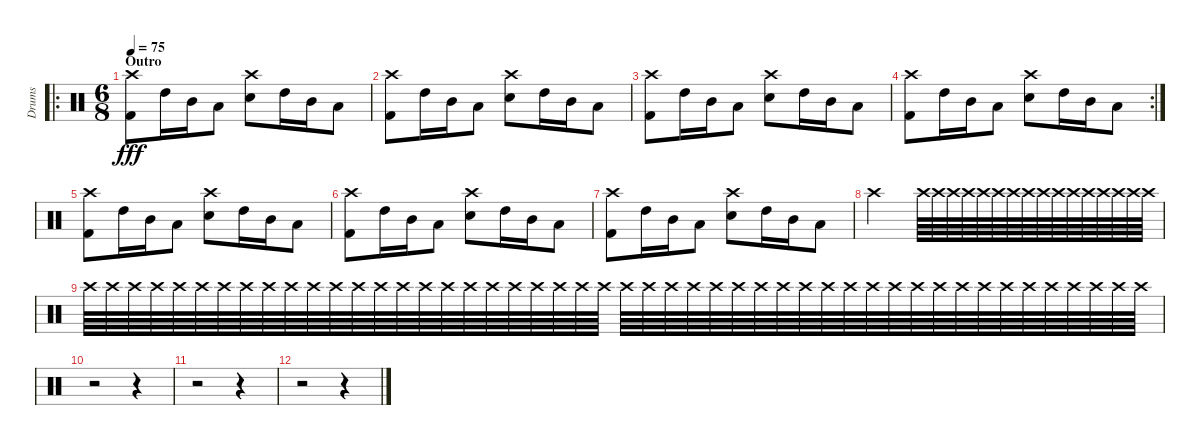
\track ("Drums" "Drums") {instrument percussion}
\staff {score}
\articulation defaults
\ro
\ts (6 8)
\section ("" "Outro")
\tempo 75
\clef neutral
\ks c
("Crash high (hit)" "Kick (hit) 2").8{dy fff} "High Tom (hit)".16 "Mid Tom (hit)".16 "Low Tom (hit)".8 ("Crash high (hit)" "Electric Snare (hit)").8 "High Tom (hit)".16 "Mid Tom (hit)".16 "Low Tom (hit)".8 |
("Crash high (hit)" "Kick (hit) 2").8 "High Tom (hit)".16 "Mid Tom (hit)".16 "Low Tom (hit)".8 ("Crash high (hit)" "Electric Snare (hit)").8 "High Tom (hit)".16 "Mid Tom (hit)".16 "Low Tom (hit)".8 |
("Crash high (hit)" "Kick (hit) 2").8 "High Tom (hit)".16 "Mid Tom (hit)".16 "Low Tom (hit)".8 ("Crash high (hit)" "Electric Snare (hit)").8 "High Tom (hit)".16 "Mid Tom (hit)".16 "Low Tom (hit)".8 |
\rc 2
("Crash high (hit)" "Kick (hit) 2").8 "High Tom (hit)".16 "Mid Tom (hit)".16 "Low Tom (hit)".8 ("Crash high (hit)" "Electric Snare (hit)").8 "High Tom (hit)".16 "Mid Tom (hit)".16 "Low Tom (hit)".8 |
("Crash high (hit)" "Kick (hit) 2").8 "High Tom (hit)".16 "Mid Tom (hit)".16 "Low Tom (hit)".8 ("Crash high (hit)" "Electric Snare (hit)").8 "High Tom (hit)".16 "Mid Tom (hit)".16 "Low Tom (hit)".8 |
("Crash high (hit)" "Kick (hit) 2").8 "High Tom (hit)".16 "Mid Tom (hit)".16 "Low Tom (hit)".8 ("Crash high (hit)" "Electric Snare (hit)").8 "High Tom (hit)".16 "Mid Tom (hit)".16 "Low Tom (hit)".8 |
("Crash high (hit)" "Kick (hit) 2").8 "High Tom (hit)".16 "Mid Tom (hit)".16 "Low Tom (hit)".8 ("Crash high (hit)" "Electric Snare (hit)").8 "High Tom (hit)".16 "Mid Tom (hit)".16 "Low Tom (hit)".8 |
"Crash high (hit)".2 "Crash high (hit)".64{volume 8} "Crash high (hit)".64{volume 16} "Crash high (hit)".64 "Crash high (hit)".64 "Crash high (hit)".64 "Crash high (hit)".64 "Crash high (hit)".64 "Crash high (hit)".64 "Crash high (hit)".64 "Crash high (hit)".64 "Crash high (hit)".64 "Crash high (hit)".64 "Crash high (hit)".64 "Crash high (hit)".64 "Crash high (hit)".64 "Crash high (hit)".64 |
"Crash high (hit)".64 "Crash high (hit)".64 "Crash high (hit)".64 "Crash high (hit)".64 "Crash high (hit)".64 "Crash high (hit)".64 "Crash high (hit)".64 "Crash high (hit)".64 "Crash high (hit)".64 "Crash high (hit)".64 "Crash high (hit)".64 "Crash high (hit)".64 "Crash high (hit)".64 "Crash high (hit)".64 "Crash high (hit)".64 "Crash high (hit)".64 "Crash high (hit)".64 "Crash high (hit)".64 "Crash high (hit)".64 "Crash high (hit)".64 "Crash high (hit)".64 "Crash high (hit)".64 "Crash high (hit)".64 "Crash high (hit)".64 "Crash high (hit)".64 "Crash high (hit)".64 "Crash high (hit)".64 "Crash high (hit)".64 "Crash high (hit)".64 "Crash high (hit)".64 "Crash high (hit)".64 "Crash high (hit)".64 "Crash high (hit)".64 "Crash high (hit)".64 "Crash high (hit)".64 "Crash high (hit)".64 "Crash high (hit)".64 "Crash high (hit)".64 "Crash high (hit)".64 "Crash high (hit)".64 "Crash high (hit)".64 "Crash high (hit)".64 "Crash high (hit)".64 "Crash high (hit)".64 "Crash high (hit)".64 "Crash high (hit)".64 "Crash high (hit)".64 "Crash high (hit)".64 |
r.2 r.4 |
r.2 r.4 |
r.2 r.4
